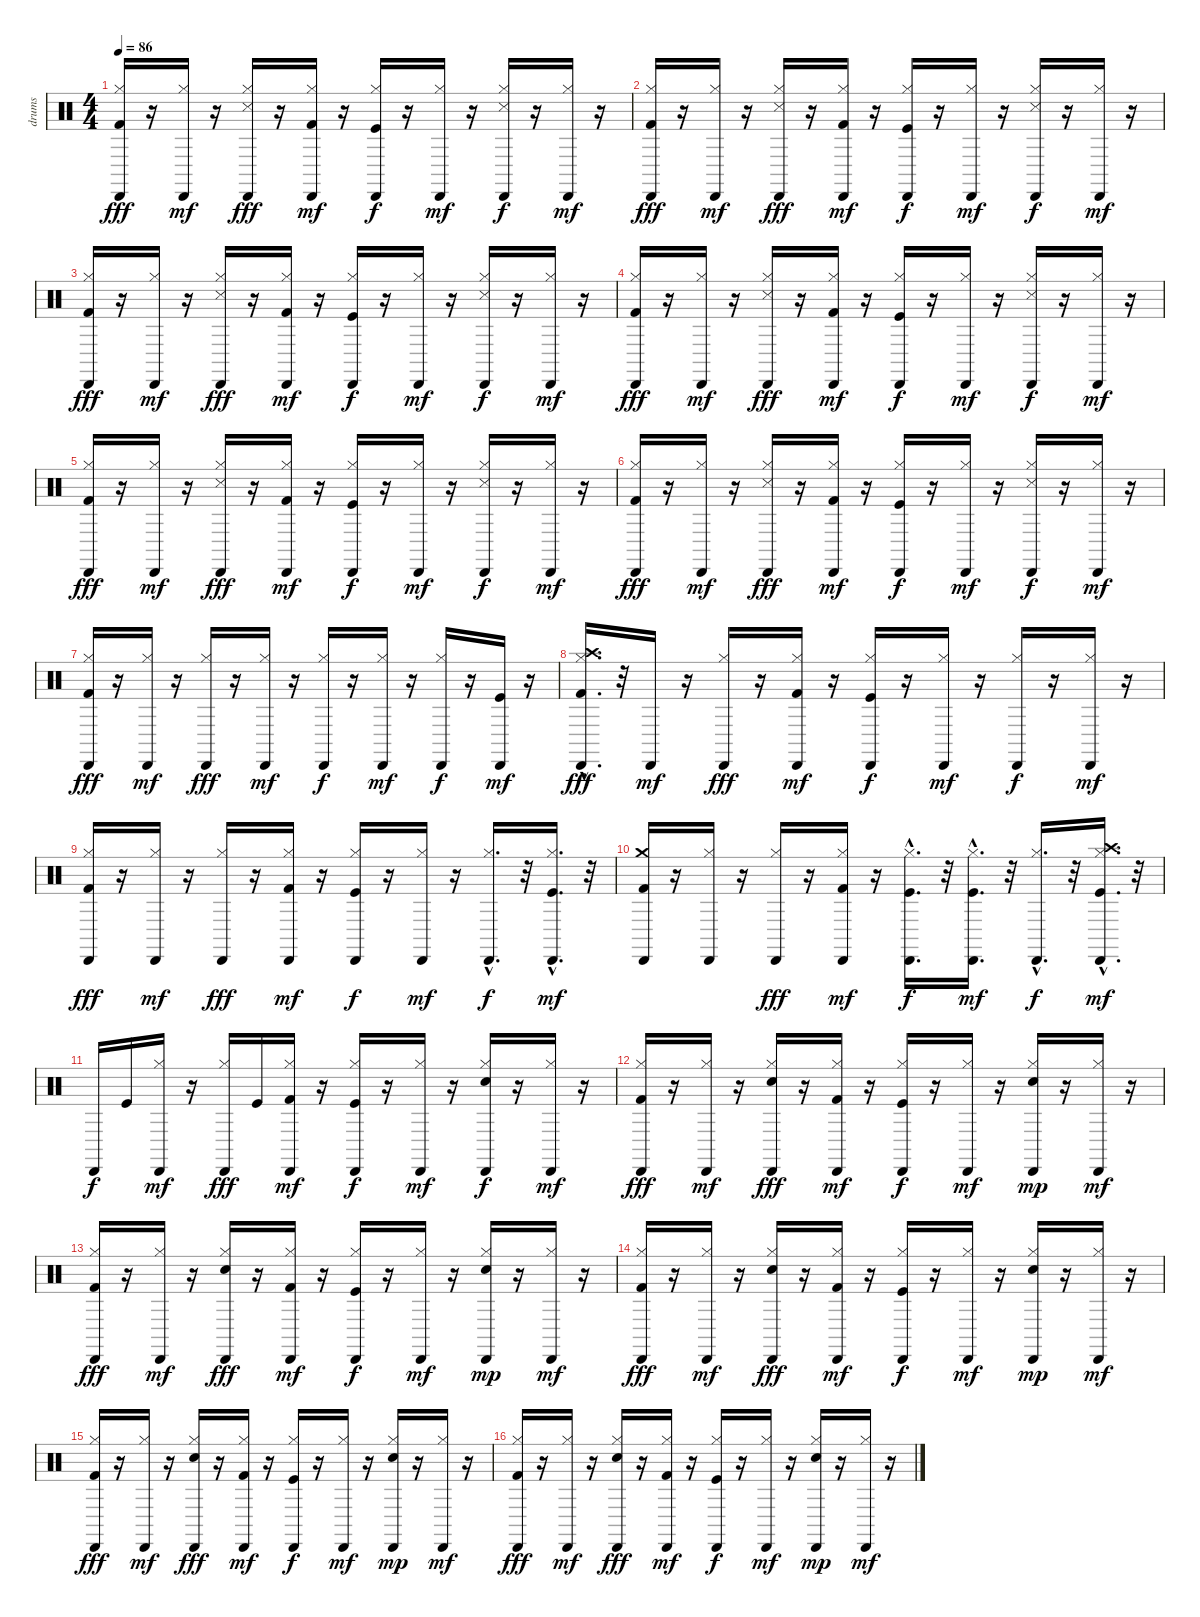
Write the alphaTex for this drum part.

\track ("drums" "drums") {instrument percussion}
\staff {score}
\articulation defaults
\ts (4 4)
\tempo 86
\clef neutral
\ks c
("Kick (hit) 2" "Hi-Hat (closed)" "Cabasa (hit)").16{dy fff} r.16 ("Hi-Hat (closed)" "Cabasa (hit)").16{dy mf} r.16 ("Snare (side stick) 3" "Hi-Hat (closed)" "Cabasa (hit)").16{dy fff} r.16 ("Kick (hit) 2" "Hi-Hat (closed)" "Cabasa (hit)").16{dy mf} r.16 ("Kick (hit)" "Hi-Hat (closed)" "Cabasa (hit)").16{dy f} r.16 ("Hi-Hat (closed)" "Cabasa (hit)").16{dy mf} r.16 ("Snare (side stick) 3" "Hi-Hat (closed)" "Cabasa (hit)").16{dy f} r.16 ("Hi-Hat (closed)" "Cabasa (hit)").16{dy mf} r.16 |
("Kick (hit) 2" "Hi-Hat (closed)" "Cabasa (hit)").16{dy fff} r.16 ("Hi-Hat (closed)" "Cabasa (hit)").16{dy mf} r.16 ("Snare (side stick) 3" "Hi-Hat (closed)" "Cabasa (hit)").16{dy fff} r.16 ("Kick (hit) 2" "Hi-Hat (closed)" "Cabasa (hit)").16{dy mf} r.16 ("Kick (hit)" "Hi-Hat (closed)" "Cabasa (hit)").16{dy f} r.16 ("Hi-Hat (closed)" "Cabasa (hit)").16{dy mf} r.16 ("Snare (side stick) 3" "Hi-Hat (closed)" "Cabasa (hit)").16{dy f} r.16 ("Hi-Hat (closed)" "Cabasa (hit)").16{dy mf} r.16 |
("Kick (hit) 2" "Hi-Hat (closed)" "Cabasa (hit)").16{dy fff} r.16 ("Hi-Hat (closed)" "Cabasa (hit)").16{dy mf} r.16 ("Snare (side stick) 3" "Hi-Hat (closed)" "Cabasa (hit)").16{dy fff} r.16 ("Kick (hit) 2" "Hi-Hat (closed)" "Cabasa (hit)").16{dy mf} r.16 ("Kick (hit)" "Hi-Hat (closed)" "Cabasa (hit)").16{dy f} r.16 ("Hi-Hat (closed)" "Cabasa (hit)").16{dy mf} r.16 ("Snare (side stick) 3" "Hi-Hat (closed)" "Cabasa (hit)").16{dy f} r.16 ("Hi-Hat (closed)" "Cabasa (hit)").16{dy mf} r.16 |
("Kick (hit) 2" "Hi-Hat (closed)" "Cabasa (hit)").16{dy fff} r.16 ("Hi-Hat (closed)" "Cabasa (hit)").16{dy mf} r.16 ("Snare (side stick) 3" "Hi-Hat (closed)" "Cabasa (hit)").16{dy fff} r.16 ("Kick (hit) 2" "Hi-Hat (closed)" "Cabasa (hit)").16{dy mf} r.16 ("Kick (hit)" "Hi-Hat (closed)" "Cabasa (hit)").16{dy f} r.16 ("Hi-Hat (closed)" "Cabasa (hit)").16{dy mf} r.16 ("Snare (side stick) 3" "Hi-Hat (closed)" "Cabasa (hit)").16{dy f} r.16 ("Hi-Hat (closed)" "Cabasa (hit)").16{dy mf} r.16 |
("Kick (hit) 2" "Hi-Hat (closed)" "Cabasa (hit)").16{dy fff} r.16 ("Hi-Hat (closed)" "Cabasa (hit)").16{dy mf} r.16 ("Snare (side stick) 3" "Hi-Hat (closed)" "Cabasa (hit)").16{dy fff} r.16 ("Kick (hit) 2" "Hi-Hat (closed)" "Cabasa (hit)").16{dy mf} r.16 ("Kick (hit)" "Hi-Hat (closed)" "Cabasa (hit)").16{dy f} r.16 ("Hi-Hat (closed)" "Cabasa (hit)").16{dy mf} r.16 ("Snare (side stick) 3" "Hi-Hat (closed)" "Cabasa (hit)").16{dy f} r.16 ("Hi-Hat (closed)" "Cabasa (hit)").16{dy mf} r.16 |
("Kick (hit) 2" "Hi-Hat (closed)" "Cabasa (hit)").16{dy fff} r.16 ("Hi-Hat (closed)" "Cabasa (hit)").16{dy mf} r.16 ("Snare (side stick) 3" "Hi-Hat (closed)" "Cabasa (hit)").16{dy fff} r.16 ("Kick (hit) 2" "Hi-Hat (closed)" "Cabasa (hit)").16{dy mf} r.16 ("Kick (hit)" "Hi-Hat (closed)" "Cabasa (hit)").16{dy f} r.16 ("Hi-Hat (closed)" "Cabasa (hit)").16{dy mf} r.16 ("Snare (side stick) 3" "Hi-Hat (closed)" "Cabasa (hit)").16{dy f} r.16 ("Hi-Hat (closed)" "Cabasa (hit)").16{dy mf} r.16 |
("Kick (hit) 2" "Hi-Hat (closed)" "Cabasa (hit)").16{dy fff} r.16 ("Hi-Hat (closed)" "Cabasa (hit)").16{dy mf} r.16 ("Hi-Hat (closed)" "Cabasa (hit)").16{dy fff} r.16 ("Hi-Hat (closed)" "Cabasa (hit)").16{dy mf} r.16 ("Hi-Hat (closed)" "Cabasa (hit)").16{dy f} r.16 ("Hi-Hat (closed)" "Cabasa (hit)").16{dy mf} r.16 ("Hi-Hat (closed)" "Cabasa (hit)").16{dy f} r.16 ("Kick (hit)" "Cabasa (hit)").16{dy mf} r.16 |
("Crash high (hit)"{hac} "Kick (hit) 2" "Hi-Hat (closed)" "Cabasa (hit)").16{d dy fff} r.32 "Cabasa (hit)".16{dy mf} r.16 ("Hi-Hat (closed)" "Cabasa (hit)").16{dy fff} r.16 ("Kick (hit) 2" "Hi-Hat (closed)" "Cabasa (hit)").16{dy mf} r.16 ("Kick (hit)" "Hi-Hat (closed)" "Cabasa (hit)").16{dy f} r.16 ("Hi-Hat (closed)" "Cabasa (hit)").16{dy mf} r.16 ("Hi-Hat (closed)" "Cabasa (hit)").16{dy f} r.16 ("Hi-Hat (closed)" "Cabasa (hit)").16{dy mf} r.16 |
("Kick (hit) 2" "Hi-Hat (closed)" "Cabasa (hit)").16{dy fff} r.16 ("Hi-Hat (closed)" "Cabasa (hit)").16{dy mf} r.16 ("Hi-Hat (closed)" "Cabasa (hit)").16{dy fff} r.16 ("Kick (hit) 2" "Hi-Hat (closed)" "Cabasa (hit)").16{dy mf} r.16 ("Kick (hit)" "Hi-Hat (closed)" "Cabasa (hit)").16{dy f} r.16 ("Hi-Hat (closed)" "Cabasa (hit)").16{dy mf} r.16 ("Hi-Hat (closed)"{hac} "Cabasa (hit)").16{d dy f} r.32 ("Kick (hit)"{hac} "Hi-Hat (closed)" "Cabasa (hit)").16{d dy mf} r.32 |
("Crash medium (hit)" "Kick (hit) 2" "Cabasa (hit)").16 r.16 ("Hi-Hat (closed)" "Cabasa (hit)").16 r.16 ("Hi-Hat (closed)" "Cabasa (hit)").16{dy fff} r.16 ("Kick (hit) 2" "Hi-Hat (closed)" "Cabasa (hit)").16{dy mf} r.16 ("Kick (hit)"{hac} "Hi-Hat (closed)"{hac} "Cabasa (hit)").16{d dy f} r.32 ("Kick (hit)"{hac} "Hi-Hat (closed)"{hac} "Cabasa (hit)").16{d dy mf} r.32 ("Hi-Hat (closed)"{hac} "Cabasa (hit)").16{d dy f} r.32 ("Crash high (hit)"{hac} "Kick (hit)"{hac} "Hi-Hat (closed)" "Cabasa (hit)").16{d dy mf} r.32 |
"Cabasa (hit)".16{dy f} "Kick (hit)".16 ("Hi-Hat (closed)" "Cabasa (hit)").16{dy mf} r.16 ("Hi-Hat (closed)" "Cabasa (hit)").16{dy fff} "Kick (hit)".16 ("Kick (hit) 2" "Hi-Hat (closed)" "Cabasa (hit)").16{dy mf} r.16 ("Kick (hit)" "Hi-Hat (closed)" "Cabasa (hit)").16{dy f} r.16 ("Hi-Hat (closed)" "Cabasa (hit)").16{dy mf} r.16 ("Electric Snare (hit)" "Hi-Hat (closed)" "Cabasa (hit)").16{dy f} r.16 ("Hi-Hat (closed)" "Cabasa (hit)").16{dy mf} r.16 |
("Kick (hit) 2" "Hi-Hat (closed)" "Cabasa (hit)").16{dy fff} r.16 ("Hi-Hat (closed)" "Cabasa (hit)").16{dy mf} r.16 ("Snare (hit) 2" "Hi-Hat (closed)" "Cabasa (hit)").16{dy fff} r.16 ("Kick (hit) 2" "Hi-Hat (closed)" "Cabasa (hit)").16{dy mf} r.16 ("Kick (hit)" "Hi-Hat (closed)" "Cabasa (hit)").16{dy f} r.16 ("Hi-Hat (closed)" "Cabasa (hit)").16{dy mf} r.16 ("Snare (hit) 2" "Hi-Hat (closed)" "Cabasa (hit)").16{dy mp} r.16 ("Hi-Hat (closed)" "Cabasa (hit)").16{dy mf} r.16 |
("Kick (hit) 2" "Hi-Hat (closed)" "Cabasa (hit)").16{dy fff} r.16 ("Hi-Hat (closed)" "Cabasa (hit)").16{dy mf} r.16 ("Snare (hit) 2" "Hi-Hat (closed)" "Cabasa (hit)").16{dy fff} r.16 ("Kick (hit) 2" "Hi-Hat (closed)" "Cabasa (hit)").16{dy mf} r.16 ("Kick (hit)" "Hi-Hat (closed)" "Cabasa (hit)").16{dy f} r.16 ("Hi-Hat (closed)" "Cabasa (hit)").16{dy mf} r.16 ("Snare (hit) 2" "Hi-Hat (closed)" "Cabasa (hit)").16{dy mp} r.16 ("Hi-Hat (closed)" "Cabasa (hit)").16{dy mf} r.16 |
("Kick (hit) 2" "Hi-Hat (closed)" "Cabasa (hit)").16{dy fff} r.16 ("Hi-Hat (closed)" "Cabasa (hit)").16{dy mf} r.16 ("Snare (hit) 2" "Hi-Hat (closed)" "Cabasa (hit)").16{dy fff} r.16 ("Kick (hit) 2" "Hi-Hat (closed)" "Cabasa (hit)").16{dy mf} r.16 ("Kick (hit)" "Hi-Hat (closed)" "Cabasa (hit)").16{dy f} r.16 ("Hi-Hat (closed)" "Cabasa (hit)").16{dy mf} r.16 ("Snare (hit) 2" "Hi-Hat (closed)" "Cabasa (hit)").16{dy mp} r.16 ("Hi-Hat (closed)" "Cabasa (hit)").16{dy mf} r.16 |
("Kick (hit) 2" "Hi-Hat (closed)" "Cabasa (hit)").16{dy fff} r.16 ("Hi-Hat (closed)" "Cabasa (hit)").16{dy mf} r.16 ("Snare (hit) 2" "Hi-Hat (closed)" "Cabasa (hit)").16{dy fff} r.16 ("Kick (hit) 2" "Hi-Hat (closed)" "Cabasa (hit)").16{dy mf} r.16 ("Kick (hit)" "Hi-Hat (closed)" "Cabasa (hit)").16{dy f} r.16 ("Hi-Hat (closed)" "Cabasa (hit)").16{dy mf} r.16 ("Snare (hit) 2" "Hi-Hat (closed)" "Cabasa (hit)").16{dy mp} r.16 ("Hi-Hat (closed)" "Cabasa (hit)").16{dy mf} r.16 |
("Kick (hit) 2" "Hi-Hat (closed)" "Cabasa (hit)").16{dy fff} r.16 ("Hi-Hat (closed)" "Cabasa (hit)").16{dy mf} r.16 ("Snare (hit) 2" "Hi-Hat (closed)" "Cabasa (hit)").16{dy fff} r.16 ("Kick (hit) 2" "Hi-Hat (closed)" "Cabasa (hit)").16{dy mf} r.16 ("Kick (hit)" "Hi-Hat (closed)" "Cabasa (hit)").16{dy f} r.16 ("Hi-Hat (closed)" "Cabasa (hit)").16{dy mf} r.16 ("Snare (hit) 2" "Hi-Hat (closed)" "Cabasa (hit)").16{dy mp} r.16 ("Hi-Hat (closed)" "Cabasa (hit)").16{dy mf} r.16
